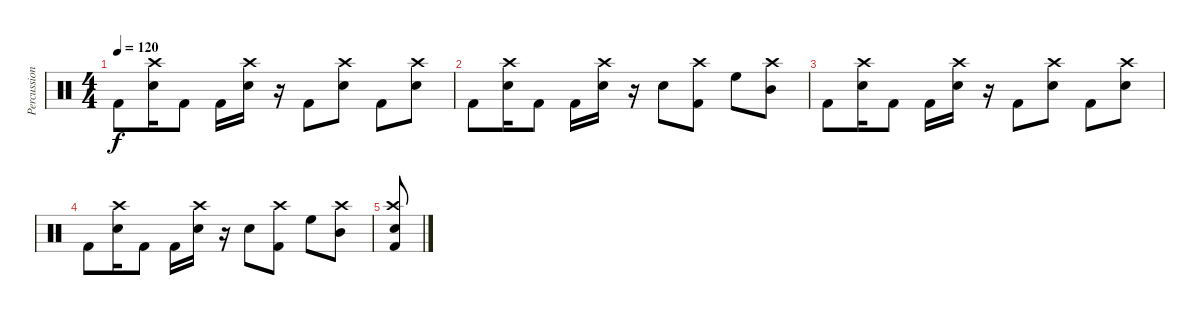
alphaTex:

\track ("Percussion" "Percussion") {instrument percussion}
\staff {score}
\articulation defaults
\ts (4 4)
\tempo 120
\clef neutral
\ks c "Kick (hit) 2".8{dy f}
("Crash high (hit)" "Electric Snare (hit)").16 "Kick (hit) 2".8 "Kick (hit) 2".16 ("Crash high (hit)" "Electric Snare (hit)").16 r.16 "Kick (hit) 2".8 ("Crash high (hit)" "Electric Snare (hit)").8 "Kick (hit) 2".8 ("Crash high (hit)" "Electric Snare (hit)").8 |
"Kick (hit) 2".8 ("Crash high (hit)" "Electric Snare (hit)").16 "Kick (hit) 2".8 "Kick (hit) 2".16 ("Crash high (hit)" "Electric Snare (hit)").16 r.16 "Electric Snare (hit)".8 ("Crash high (hit)" "Kick (hit) 2").8 "High Floor Tom (hit)".8 ("Crash high (hit)" "Mid Tom (hit)").8 |
"Kick (hit) 2".8 ("Crash high (hit)" "Electric Snare (hit)").16 "Kick (hit) 2".8 "Kick (hit) 2".16 ("Crash high (hit)" "Electric Snare (hit)").16 r.16 "Kick (hit) 2".8 ("Crash high (hit)" "Electric Snare (hit)").8 "Kick (hit) 2".8 ("Crash high (hit)" "Electric Snare (hit)").8 |
"Kick (hit) 2".8 ("Crash high (hit)" "Electric Snare (hit)").16 "Kick (hit) 2".8 "Kick (hit) 2".16 ("Crash high (hit)" "Electric Snare (hit)").16 r.16 "Electric Snare (hit)".8 ("Crash high (hit)" "Kick (hit) 2").8 "High Floor Tom (hit)".8 ("Crash high (hit)" "Mid Tom (hit)").8 |
("Crash high (hit)" "Electric Snare (hit)" "Kick (hit) 2").8
